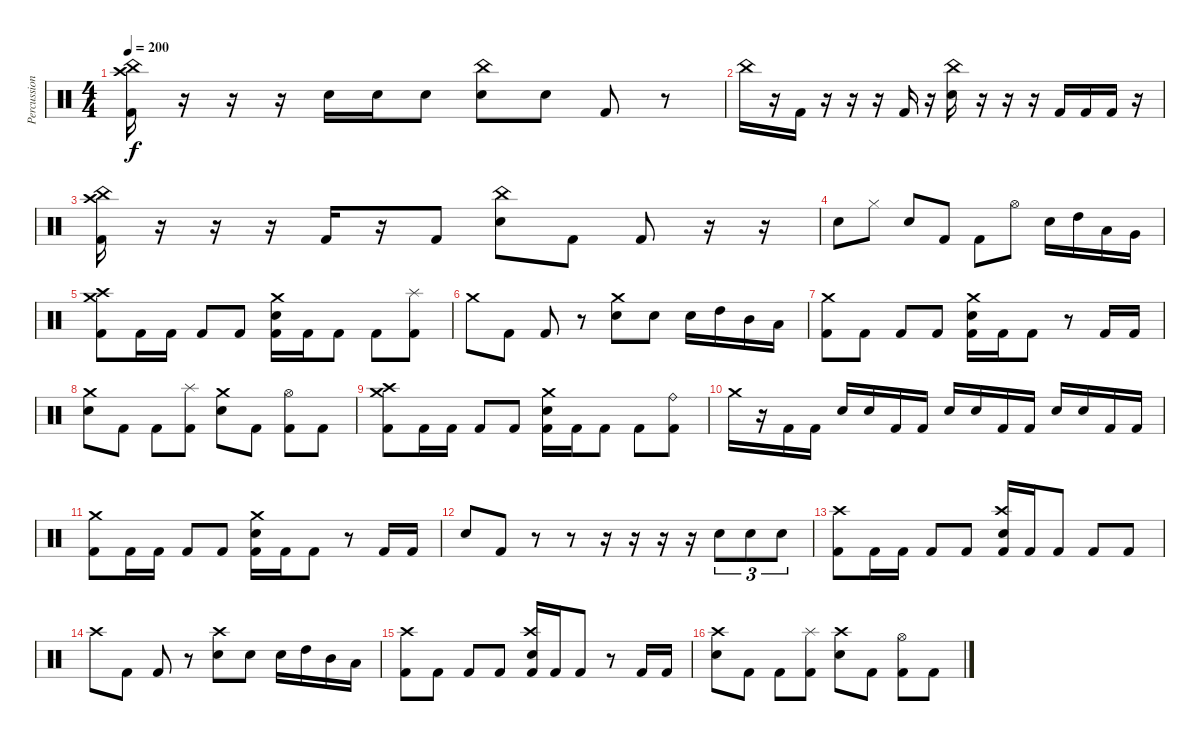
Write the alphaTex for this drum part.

\track ("Percussion" "Percussion") {instrument percussion}
\staff {score}
\articulation defaults
\ts (4 4)
\tempo 200
\clef neutral
\ks c
("China (hit)" "Kick (hit) 2" "Crash high (hit)").16{dy f} r.16 r.16 r.16 "Electric Snare (hit)".16 "Electric Snare (hit)".16 "Electric Snare (hit)".8 ("Electric Snare (hit)" "China (hit)").8 "Electric Snare (hit)".8 "Kick (hit) 2".8 r.8 |
"China (hit)".16 r.16 "Kick (hit) 2".16 r.16 r.16 r.16 "Kick (hit) 2".16 r.16 ("China (hit)" "Electric Snare (hit)").16 r.16 r.16 r.16 "Kick (hit) 2".16 "Kick (hit) 2".16 "Kick (hit) 2".16 r.16 |
("China (hit)" "Kick (hit) 2" "Crash high (hit)").16 r.16 r.16 r.16 "Kick (hit) 2".16 r.16 "Kick (hit) 2".8 ("Electric Snare (hit)" "China (hit)").8 "Kick (hit) 2".8 "Kick (hit) 2".8 r.16 r.16 |
"Electric Snare (hit)".8 "Hi-Hat (closed)".8 "Electric Snare (hit)".8 "Kick (hit) 2".8 "Kick (hit) 2".8 "Hi-Hat (open)".8 "Electric Snare (hit)".16 "High Tom (hit)".16 "Low Tom (hit)".16 "Very Low Tom (hit)".16 |
("Kick (hit) 2" "Crash high (hit)" "Crash medium (hit)").8 "Kick (hit) 2".16 "Kick (hit) 2".16 "Kick (hit) 2".8 "Kick (hit) 2".8 ("Kick (hit) 2" "Electric Snare (hit)" "Crash medium (hit)").16 "Kick (hit) 2".16 "Kick (hit) 2".8 "Kick (hit) 2".8 ("Kick (hit) 2" "Splash (hit)").8 |
"Crash medium (hit)".8 "Kick (hit) 2".8 "Kick (hit) 2".8 r.8 ("Crash medium (hit)" "Electric Snare (hit)").8 "Electric Snare (hit)".8 "Electric Snare (hit)".16 "High Tom (hit)".16 "Mid Tom (hit)".16 "Low Tom (hit)".16 |
("Kick (hit) 2" "Crash medium (hit)").8 "Kick (hit) 2".8 "Kick (hit) 2".8 "Kick (hit) 2".8 ("Kick (hit) 2" "Electric Snare (hit)" "Crash medium (hit)").16 "Kick (hit) 2".16 "Kick (hit) 2".8 r.8 "Kick (hit) 2".16 "Kick (hit) 2".16 |
("Crash medium (hit)" "Electric Snare (hit)").8 "Kick (hit) 2".8 "Kick (hit) 2".8 ("Splash (hit)" "Kick (hit) 2").8 ("Crash medium (hit)" "Electric Snare (hit)").8 "Kick (hit) 2".8 ("Hi-Hat (open)" "Kick (hit) 2").8 "Kick (hit) 2".8 |
("Kick (hit) 2" "Crash high (hit)" "Crash medium (hit)").8 "Kick (hit) 2".16 "Kick (hit) 2".16 "Kick (hit) 2".8 "Kick (hit) 2".8 ("Kick (hit) 2" "Electric Snare (hit)" "Crash medium (hit)").16 "Kick (hit) 2".16 "Kick (hit) 2".8 "Kick (hit) 2".8 ("Kick (hit) 2" "Ride (bell)").8 |
"Crash medium (hit)".16 r.16 "Kick (hit) 2".16 "Kick (hit) 2".16 "Electric Snare (hit)".16 "Electric Snare (hit)".16 "Kick (hit) 2".16 "Kick (hit) 2".16 "Electric Snare (hit)".16 "Electric Snare (hit)".16 "Kick (hit) 2".16 "Kick (hit) 2".16 "Electric Snare (hit)".16 "Electric Snare (hit)".16 "Kick (hit) 2".16 "Kick (hit) 2".16 |
("Kick (hit) 2" "Crash medium (hit)").8 "Kick (hit) 2".16 "Kick (hit) 2".16 "Kick (hit) 2".8 "Kick (hit) 2".8 ("Kick (hit) 2" "Electric Snare (hit)" "Crash medium (hit)").16 "Kick (hit) 2".16 "Kick (hit) 2".8 r.8 "Kick (hit) 2".16 "Kick (hit) 2".16 |
"Electric Snare (hit)".8 "Kick (hit) 2".8 r.8 r.8 r.16 r.16 r.16 r.16 "Electric Snare (hit)".8{tu (3 2)} "Electric Snare (hit)".8{tu (3 2)} "Electric Snare (hit)".8{tu (3 2)} |
("Kick (hit) 2" "Crash high (hit)").8 "Kick (hit) 2".16 "Kick (hit) 2".16 "Kick (hit) 2".8 "Kick (hit) 2".8 ("Kick (hit) 2" "Electric Snare (hit)" "Crash high (hit)").16 "Kick (hit) 2".16 "Kick (hit) 2".8 "Kick (hit) 2".8 "Kick (hit) 2".8 |
"Crash high (hit)".8 "Kick (hit) 2".8 "Kick (hit) 2".8 r.8 ("Crash high (hit)" "Electric Snare (hit)").8 "Electric Snare (hit)".8 "Electric Snare (hit)".16 "High Tom (hit)".16 "Mid Tom (hit)".16 "Low Tom (hit)".16 |
("Kick (hit) 2" "Crash high (hit)").8 "Kick (hit) 2".8 "Kick (hit) 2".8 "Kick (hit) 2".8 ("Kick (hit) 2" "Electric Snare (hit)" "Crash high (hit)").16 "Kick (hit) 2".16 "Kick (hit) 2".8 r.8 "Kick (hit) 2".16 "Kick (hit) 2".16 |
("Crash high (hit)" "Electric Snare (hit)").8 "Kick (hit) 2".8 "Kick (hit) 2".8 ("Splash (hit)" "Kick (hit) 2").8 ("Crash high (hit)" "Electric Snare (hit)").8 "Kick (hit) 2".8 ("Hi-Hat (open)" "Kick (hit) 2").8 "Kick (hit) 2".8
